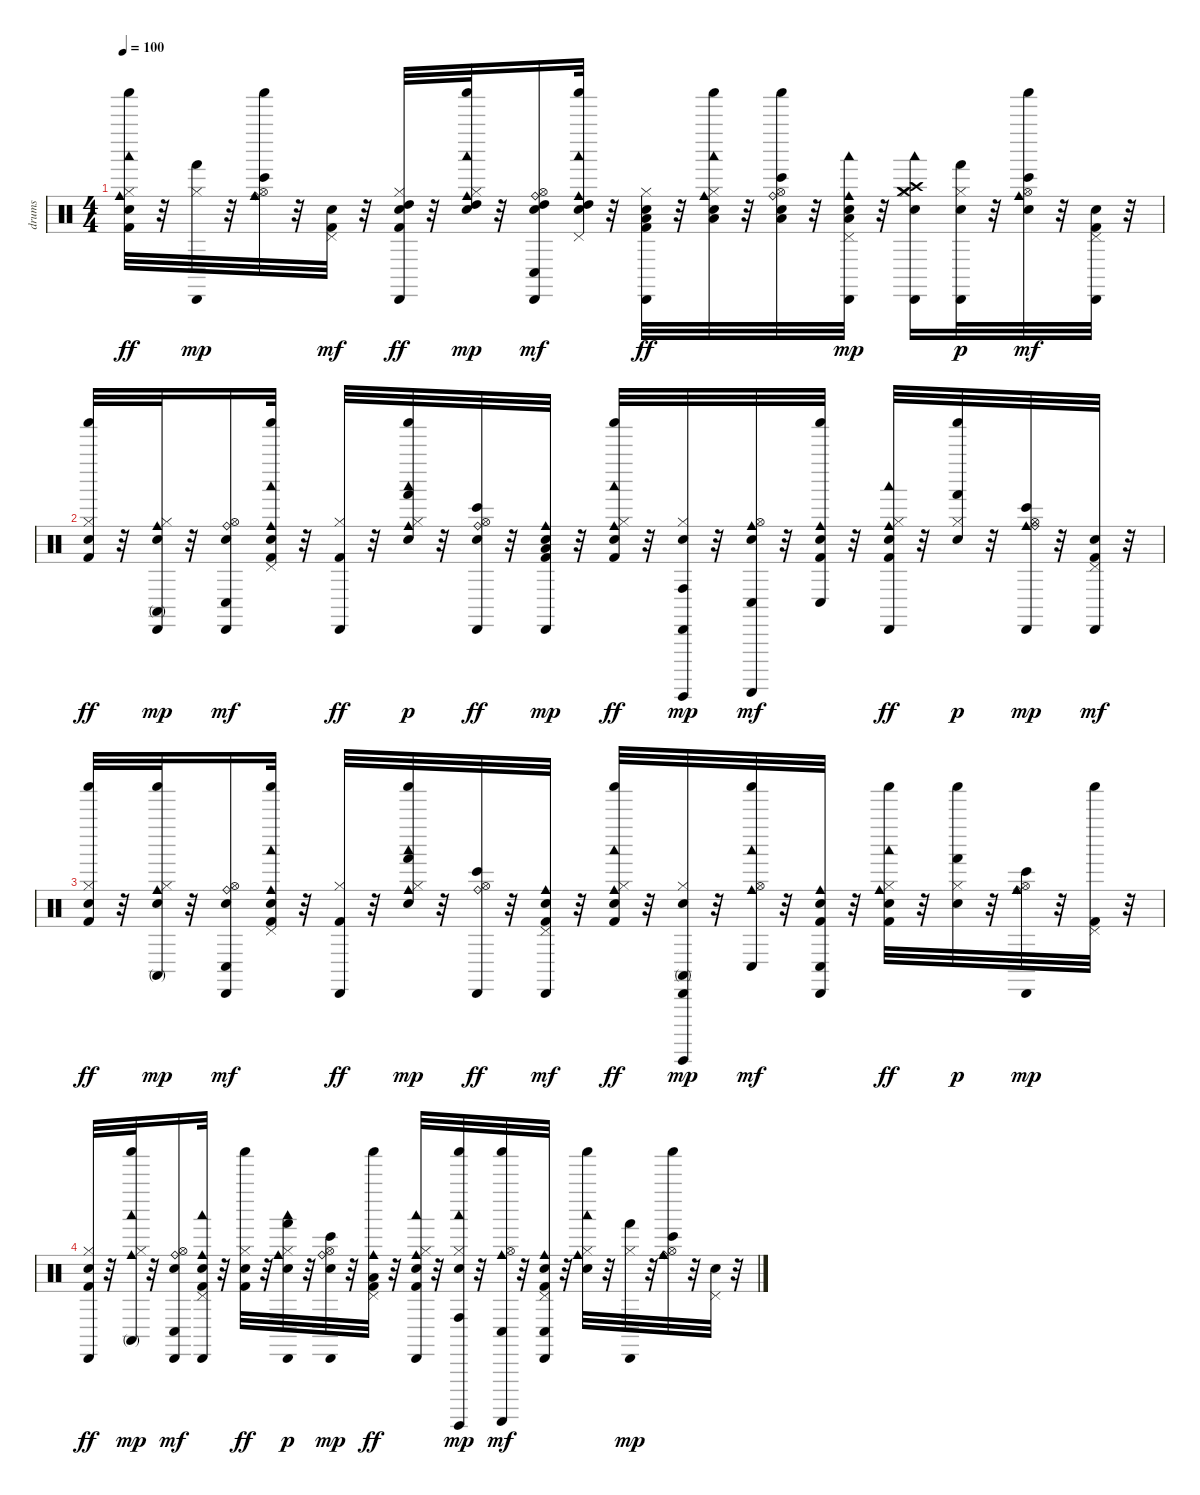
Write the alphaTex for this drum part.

\track ("drums" "drums") {instrument percussion}
\staff {score}
\articulation defaults
\ts (4 4)
\tempo 100
\clef neutral
\ks c
("Snare (hit) 2" "Hi-Hat (closed)" "Woodblock low (hit)" "Shaker (hit)" "Cowbell medium (hit)" "Kick (hit) 2").32{dy ff} r.32 ("Hi-Hat (closed)" "Cabasa (hit)" "Hand (hit)").32{dy mp} r.32 ("Hi-Hat (open)" "Shaker (hit)" "Cowbell medium (hit)" "Ride (bell)" "Bongo High (hit)").32 r.32 ("Snare (hit) 2" "Pedal Hi-Hat (hit)" "Kick (hit) 2").32{dy mf} r.32 ("High Tom (hit)" "Snare (hit) 2" "Hi-Hat (closed)" "Cabasa (hit)" "Kick (hit) 2").32{dy ff} r.32 ("High Tom (hit)" "Snare (hit) 2" "Hi-Hat (closed)" "Woodblock low (hit)" "Shaker (hit)" "Cowbell medium (hit)").32{dy mp} r.32 ("High Tom (hit)" "Snare (hit) 2" "Hi-Hat (open)" "Cabasa (hit)" "Ride (bell)" "Conga low (hit)").16{dy mf} ("High Tom (hit)" "Snare (hit) 2" "Pedal Hi-Hat (hit)" "Woodblock low (hit)" "Shaker (hit)" "Cowbell medium (hit)").32 r.32 ("Low Tom (hit)" "Snare (hit) 2" "Hi-Hat (closed)" "Cabasa (hit)" "Kick (hit) 2").32{dy ff} r.32 ("Low Tom (hit)" "Snare (hit) 2" "Hi-Hat (closed)" "Woodblock low (hit)" "Shaker (hit)" "Cowbell medium (hit)").32 r.32 ("Low Tom (hit)" "Snare (hit) 2" "Hi-Hat (open)" "Shaker (hit)" "Ride (bell)" "Bongo High (hit)").32 r.32 ("Low Tom (hit)" "Snare (hit) 2" "Pedal Hi-Hat (hit)" "Woodblock low (hit)" "Cabasa (hit)" "Cowbell medium (hit)").32{dy mp} r.32 ("Crash high (hit)" "Crash medium (hit)" "Snare (hit) 2" "Hi-Hat (closed)" "Woodblock low (hit)" "Cabasa (hit)").16 ("Snare (hit) 2" "Hi-Hat (closed)" "Cabasa (hit)" "Hand (hit)").32{dy p} r.32 ("Snare (hit) 2" "Hi-Hat (open)" "Shaker (hit)" "Cowbell medium (hit)" "Bongo High (hit)").32{dy mf} r.32 ("Snare (hit) 2" "Pedal Hi-Hat (hit)" "Cabasa (hit)" "Kick (hit) 2").32 r.32 |
("Snare (hit) 2" "Hi-Hat (closed)" "Shaker (hit)" "Kick (hit) 2").32{dy ff} r.32 ("Snare (hit) 2" "Hi-Hat (closed)" "Cabasa (hit)" "Cowbell medium (hit)" "Conga high (mute)").32{dy mp} r.32 ("Snare (hit) 2" "Hi-Hat (open)" "Cabasa (hit)" "Ride (bell)" "Conga low (hit)").16{dy mf} ("Snare (hit) 2" "Pedal Hi-Hat (hit)" "Woodblock low (hit)" "Shaker (hit)" "Cowbell medium (hit)" "Kick (hit) 2").32 r.32 ("Hi-Hat (closed)" "Cabasa (hit)" "Kick (hit) 2").32{dy ff} r.32 ("Snare (hit) 2" "Hi-Hat (closed)" "Woodblock low (hit)" "Shaker (hit)" "Cowbell medium (hit)" "Hand (hit)").32{dy p} r.32 ("Snare (hit) 2" "Hi-Hat (open)" "Cabasa (hit)" "Ride (bell)" "Bongo High (hit)").32{dy ff} r.32 ("Snare (hit) 2" "Cabasa (hit)" "Cowbell medium (hit)" "Kick (hit) 2" "Low Tom (hit)").32{dy mp} r.32 ("Snare (hit) 2" "Hi-Hat (closed)" "Woodblock low (hit)" "Shaker (hit)" "Cowbell medium (hit)" "Kick (hit) 2").32{dy ff} r.32 ("Snare (hit) 2" "Hi-Hat (closed)" "Cabasa (hit)" "Guiro (hit)" "Conga high (hit)").32{dy mp} r.32 ("Snare (hit) 2" "Hi-Hat (open)" "Guiro (scrap-return)" "Cowbell medium (hit)" "Conga low (hit)").32{dy mf} r.32 ("Snare (hit) 2" "Shaker (hit)" "Cowbell medium (hit)" "Kick (hit) 2" "Conga low (hit)").32 r.32 ("Snare (hit) 2" "Hi-Hat (closed)" "Woodblock low (hit)" "Cabasa (hit)" "Cowbell medium (hit)" "Kick (hit) 2").32{dy ff} r.32 ("Snare (hit) 2" "Hi-Hat (closed)" "Shaker (hit)" "Hand (hit)").32{dy p} r.32 ("Hi-Hat (open)" "Cabasa (hit)" "Cowbell medium (hit)" "Ride (bell)" "Bongo High (hit)").32{dy mp} r.32 ("Snare (hit) 2" "Pedal Hi-Hat (hit)" "Cabasa (hit)" "Kick (hit) 2").32{dy mf} r.32 |
("Snare (hit) 2" "Hi-Hat (closed)" "Shaker (hit)" "Kick (hit) 2").32{dy ff} r.32 ("Snare (hit) 2" "Hi-Hat (closed)" "Shaker (hit)" "Cowbell medium (hit)" "Conga high (mute)").32{dy mp} r.32 ("Snare (hit) 2" "Hi-Hat (open)" "Cabasa (hit)" "Ride (bell)" "Conga low (hit)").16{dy mf} ("Snare (hit) 2" "Pedal Hi-Hat (hit)" "Woodblock low (hit)" "Shaker (hit)" "Cowbell medium (hit)" "Kick (hit) 2").32 r.32 ("Hi-Hat (closed)" "Cabasa (hit)" "Kick (hit) 2").32{dy ff} r.32 ("Snare (hit) 2" "Hi-Hat (closed)" "Woodblock low (hit)" "Shaker (hit)" "Cowbell medium (hit)" "Hand (hit)").32{dy mp} r.32 ("Hi-Hat (open)" "Cabasa (hit)" "Ride (bell)" "Bongo High (hit)").32{dy ff} r.32 ("Snare (hit) 2" "Pedal Hi-Hat (hit)" "Cabasa (hit)" "Cowbell medium (hit)" "Kick (hit) 2").32{dy mf} r.32 ("Snare (hit) 2" "Hi-Hat (closed)" "Woodblock low (hit)" "Shaker (hit)" "Cowbell medium (hit)" "Kick (hit) 2").32{dy ff} r.32 ("Snare (hit) 2" "Hi-Hat (closed)" "Cabasa (hit)" "Guiro (hit)" "Conga high (mute)").32{dy mp} r.32 ("Hi-Hat (open)" "Woodblock low (hit)" "Shaker (hit)" "Cowbell medium (hit)" "Conga low (hit)").32{dy mf} r.32 ("Snare (hit) 2" "Cabasa (hit)" "Cowbell medium (hit)" "Kick (hit) 2" "Conga low (hit)").32 r.32 ("Snare (hit) 2" "Hi-Hat (closed)" "Woodblock low (hit)" "Shaker (hit)" "Cowbell medium (hit)" "Kick (hit) 2").32{dy ff} r.32 ("Snare (hit) 2" "Hi-Hat (closed)" "Shaker (hit)" "Hand (hit)").32{dy p} r.32 ("Hi-Hat (open)" "Cabasa (hit)" "Cowbell medium (hit)" "Ride (bell)" "Bongo High (hit)").32{dy mp} r.32 ("Pedal Hi-Hat (hit)" "Shaker (hit)" "Kick (hit) 2").32 r.32 |
("Snare (hit) 2" "Hi-Hat (closed)" "Cabasa (hit)" "Kick (hit) 2").32{dy ff} r.32 ("Hi-Hat (closed)" "Woodblock low (hit)" "Shaker (hit)" "Cowbell medium (hit)" "Conga high (mute)").32{dy mp} r.32 ("Snare (hit) 2" "Hi-Hat (open)" "Cabasa (hit)" "Ride (bell)" "Conga low (hit)").16{dy mf} ("Snare (hit) 2" "Pedal Hi-Hat (hit)" "Woodblock low (hit)" "Cabasa (hit)" "Cowbell medium (hit)" "Kick (hit) 2").32 r.32 ("Snare (hit) 2" "Hi-Hat (closed)" "Shaker (hit)" "Kick (hit) 2").32{dy ff} r.32 ("Snare (hit) 2" "Hi-Hat (closed)" "Woodblock low (hit)" "Cabasa (hit)" "Cowbell medium (hit)" "Hand (hit)").32{dy p} r.32 ("Snare (hit) 2" "Hi-Hat (open)" "Cabasa (hit)" "Ride (bell)" "Bongo High (hit)").32{dy mp} r.32 ("Pedal Hi-Hat (hit)" "Shaker (hit)" "Cowbell medium (hit)" "Kick (hit) 2" "Low Tom (hit)").32{dy ff} r.32 ("Snare (hit) 2" "Hi-Hat (closed)" "Woodblock low (hit)" "Cabasa (hit)" "Cowbell medium (hit)" "Kick (hit) 2").32 r.32 ("Snare (hit) 2" "Hi-Hat (closed)" "Woodblock low (hit)" "Shaker (hit)" "Guiro (hit)" "Conga high (hit)").32{dy mp} r.32 ("Hi-Hat (open)" "Shaker (hit)" "Guiro (scrap-return)" "Cowbell medium (hit)" "Conga low (hit)").32{dy mf} r.32 ("Snare (hit) 2" "Pedal Hi-Hat (hit)" "Cabasa (hit)" "Cowbell medium (hit)" "Kick (hit) 2" "Conga low (hit)").32 r.32 ("Snare (hit) 2" "Hi-Hat (closed)" "Woodblock low (hit)" "Shaker (hit)" "Cowbell medium (hit)").32 r.32 ("Hi-Hat (closed)" "Cabasa (hit)" "Hand (hit)").32{dy mp} r.32 ("Hi-Hat (open)" "Shaker (hit)" "Cowbell medium (hit)" "Ride (bell)" "Bongo High (hit)").32 r.32 ("Snare (hit) 2" "Pedal Hi-Hat (hit)").32 r.32
